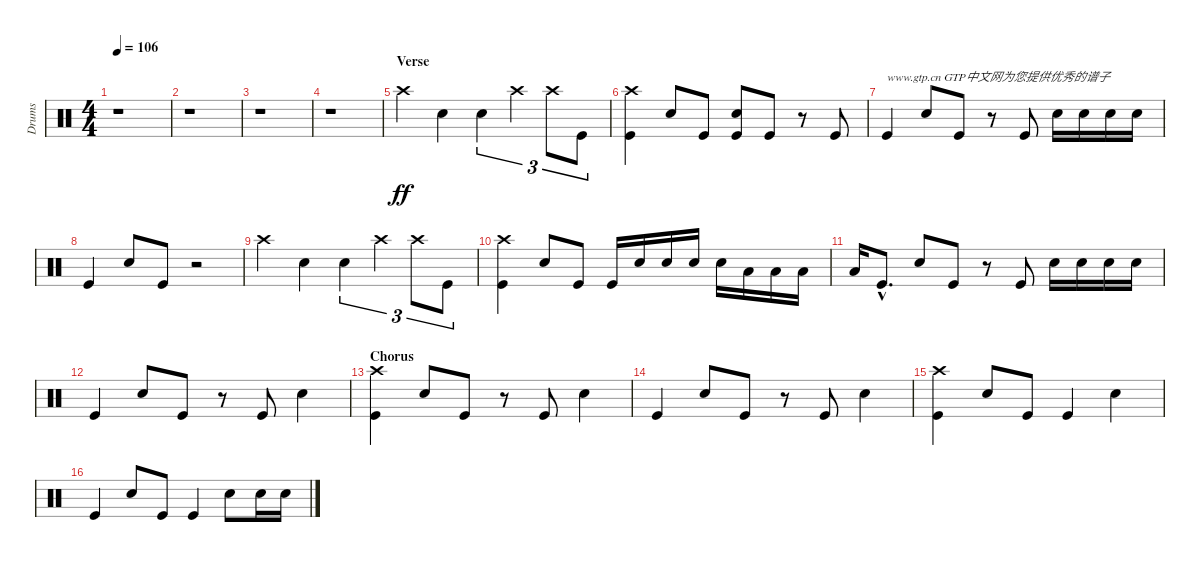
\track ("Drums" "Drums") {instrument percussion}
\staff {score}
\articulation defaults
\ts (4 4)
\tempo 106
\clef neutral
\ks c
r.1{dy ff} |
r.1 |
r.1 |
r.1 |
\section ("" "Verse")
"Crash high (hit)".4 "Snare (hit) 2".4 "Snare (hit) 2".4{tu (3 2)} "Crash high (hit)".4{tu (3 2)} "Crash high (hit)".8{tu (3 2)} "Kick (hit)".8{tu (3 2)} |
("Crash high (hit)" "Kick (hit)").4 "Snare (hit) 2".8 "Kick (hit)".8 ("Snare (hit) 2" "Kick (hit)").8 "Kick (hit)".8 r.8 "Kick (hit)".8 |
"Kick (hit)".4{txt "www.gtp.cn GTP中文网为您提供优秀的谱子"} "Snare (hit) 2".8 "Kick (hit)".8 r.8 "Kick (hit)".8 "Snare (hit) 2".16 "Snare (hit) 2".16 "Snare (hit) 2".16 "Snare (hit) 2".16 |
"Kick (hit)".4 "Snare (hit) 2".8 "Kick (hit)".8 r.2 |
"Crash high (hit)".4 "Snare (hit) 2".4 "Snare (hit) 2".4{tu (3 2)} "Crash high (hit)".4{tu (3 2)} "Crash high (hit)".8{tu (3 2)} "Kick (hit)".8{tu (3 2)} |
("Crash high (hit)" "Kick (hit)").4 "Snare (hit) 2".8 "Kick (hit)".8 "Kick (hit)".16 "Snare (hit) 2".16 "Snare (hit) 2".16 "Snare (hit) 2".16 "Snare (hit) 2".16 "Low Tom (hit)".16 "Low Tom (hit)".16 "Low Tom (hit)".16 |
"Low Tom (hit)".16 "Kick (hit)"{hac}.8{d} "Snare (hit) 2".8 "Kick (hit)".8 r.8 "Kick (hit)".8 "Snare (hit) 2".16 "Snare (hit) 2".16 "Snare (hit) 2".16 "Snare (hit) 2".16 |
"Kick (hit)".4 "Snare (hit) 2".8 "Kick (hit)".8 r.8 "Kick (hit)".8 "Snare (hit) 2".4 |
\section ("" "Chorus")
("Crash high (hit)" "Kick (hit)").4 "Snare (hit) 2".8 "Kick (hit)".8 r.8 "Kick (hit)".8 "Snare (hit) 2".4 |
"Kick (hit)".4 "Snare (hit) 2".8 "Kick (hit)".8 r.8 "Kick (hit)".8 "Snare (hit) 2".4 |
("Crash high (hit)" "Kick (hit)").4 "Snare (hit) 2".8 "Kick (hit)".8 "Kick (hit)".4 "Snare (hit) 2".4 |
"Kick (hit)".4 "Snare (hit) 2".8 "Kick (hit)".8 "Kick (hit)".4 "Snare (hit) 2".8 "Snare (hit) 2".16 "Snare (hit) 2".16
